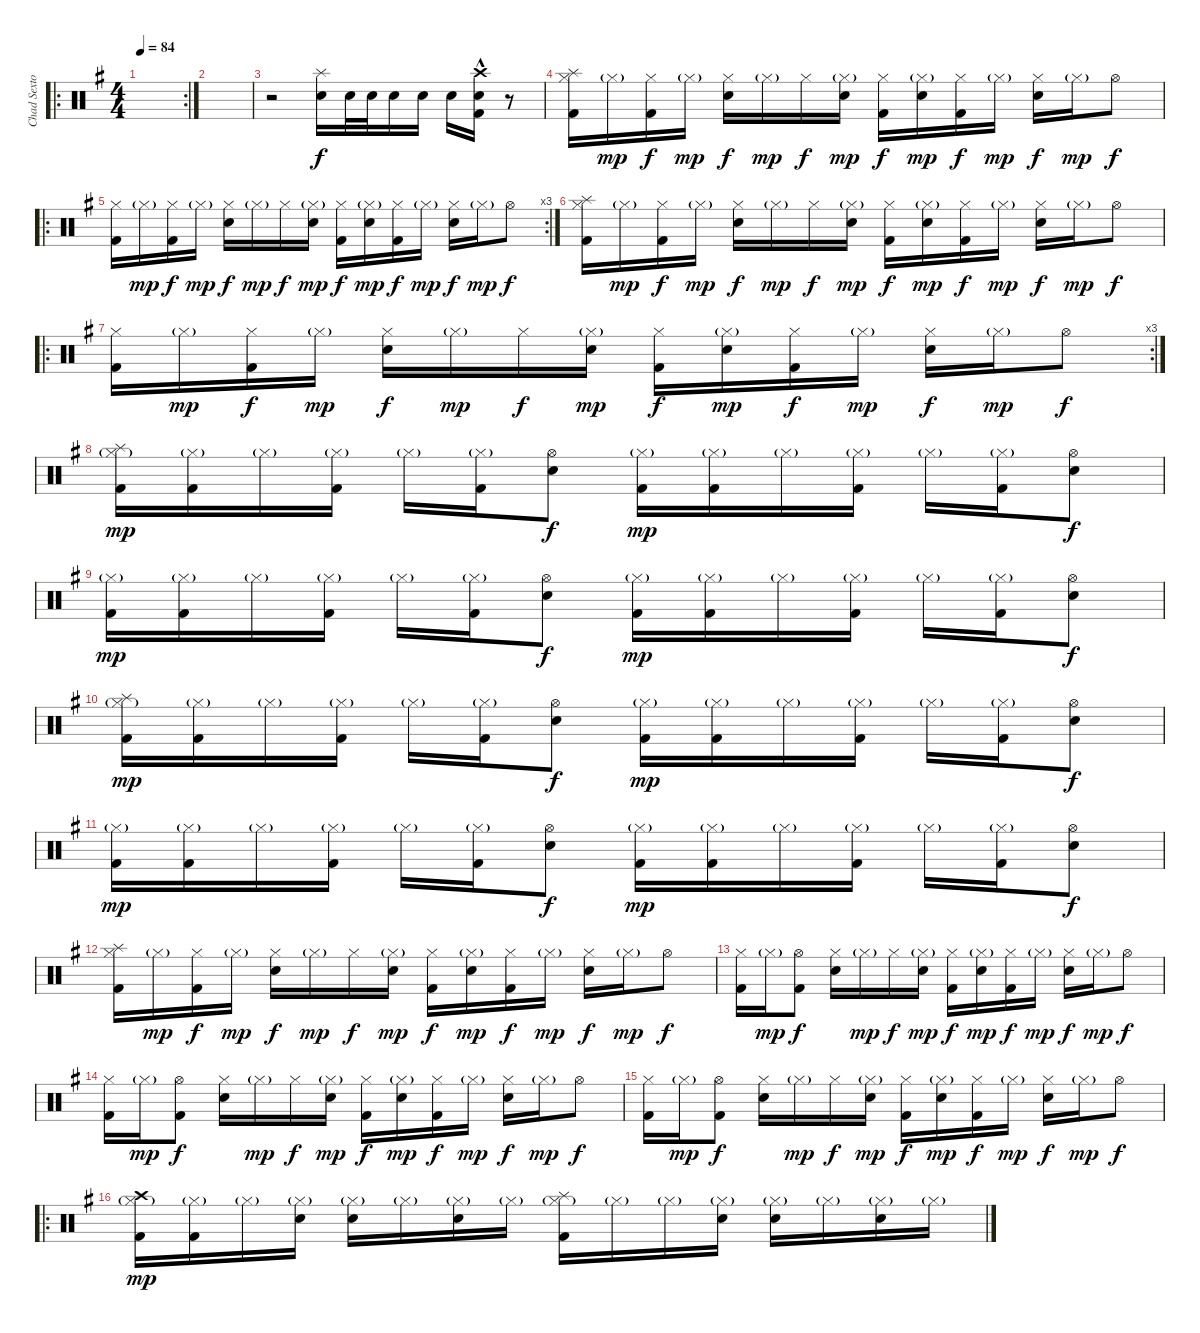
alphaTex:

\track ("Chad Sexton (Drums)" "Chad Sexto") {instrument percussion}
\staff {score}
\articulation defaults
\ro
\rc 2
\ts (4 4)
\tempo 84
\clef neutral
\ks g
|
|
r.2 ("Splash (hit)" "Electric Snare (hit)").16 "Electric Snare (hit)".32 "Electric Snare (hit)".32 "Electric Snare (hit)".16 "Electric Snare (hit)".16 "Electric Snare (hit)".16 ("Crash high (hit)" "Snare (hit) 2"{hac} "Kick (hit) 2").16 r.8 |
("Splash (hit)" "Hi-Hat (closed)" "Kick (hit) 2").16 "Hi-Hat (closed)"{g}.16{dy mp} ("Hi-Hat (closed)" "Kick (hit) 2").16{dy f} "Hi-Hat (closed)"{g}.16{dy mp} ("Hi-Hat (closed)" "Snare (hit) 2").16{dy f} "Hi-Hat (closed)"{g}.16{dy mp} "Hi-Hat (closed)".16{dy f} ("Hi-Hat (closed)"{g} "Snare (hit) 2").16{dy mp} ("Hi-Hat (closed)" "Kick (hit) 2").16{dy f} ("Hi-Hat (closed)"{g} "Snare (hit) 2").16{dy mp} ("Hi-Hat (closed)" "Kick (hit) 2").16{dy f} "Hi-Hat (closed)"{g}.16{dy mp} ("Hi-Hat (closed)" "Snare (hit) 2").16{dy f} "Hi-Hat (closed)"{g}.16{dy mp} "Hi-Hat (open)".8{dy f} |
\ro
\rc 3
("Hi-Hat (closed)" "Kick (hit) 2").16 "Hi-Hat (closed)"{g}.16{dy mp} ("Hi-Hat (closed)" "Kick (hit) 2").16{dy f} "Hi-Hat (closed)"{g}.16{dy mp} ("Hi-Hat (closed)" "Snare (hit) 2").16{dy f} "Hi-Hat (closed)"{g}.16{dy mp} "Hi-Hat (closed)".16{dy f} ("Hi-Hat (closed)"{g} "Snare (hit) 2").16{dy mp} ("Hi-Hat (closed)" "Kick (hit) 2").16{dy f} ("Hi-Hat (closed)"{g} "Snare (hit) 2").16{dy mp} ("Hi-Hat (closed)" "Kick (hit) 2").16{dy f} "Hi-Hat (closed)"{g}.16{dy mp} ("Hi-Hat (closed)" "Snare (hit) 2").16{dy f} "Hi-Hat (closed)"{g}.16{dy mp} "Hi-Hat (open)".8{dy f} |
("Splash (hit)" "Hi-Hat (closed)" "Kick (hit) 2").16 "Hi-Hat (closed)"{g}.16{dy mp} ("Hi-Hat (closed)" "Kick (hit) 2").16{dy f} "Hi-Hat (closed)"{g}.16{dy mp} ("Hi-Hat (closed)" "Snare (hit) 2").16{dy f} "Hi-Hat (closed)"{g}.16{dy mp} "Hi-Hat (closed)".16{dy f} ("Hi-Hat (closed)"{g} "Snare (hit) 2").16{dy mp} ("Hi-Hat (closed)" "Kick (hit) 2").16{dy f} ("Hi-Hat (closed)"{g} "Snare (hit) 2").16{dy mp} ("Hi-Hat (closed)" "Kick (hit) 2").16{dy f} "Hi-Hat (closed)"{g}.16{dy mp} ("Hi-Hat (closed)" "Snare (hit) 2").16{dy f} "Hi-Hat (closed)"{g}.16{dy mp} "Hi-Hat (open)".8{dy f} |
\ro
\rc 3
("Hi-Hat (closed)" "Kick (hit) 2").16 "Hi-Hat (closed)"{g}.16{dy mp} ("Hi-Hat (closed)" "Kick (hit) 2").16{dy f} "Hi-Hat (closed)"{g}.16{dy mp} ("Hi-Hat (closed)" "Snare (hit) 2").16{dy f} "Hi-Hat (closed)"{g}.16{dy mp} "Hi-Hat (closed)".16{dy f} ("Hi-Hat (closed)"{g} "Snare (hit) 2").16{dy mp} ("Hi-Hat (closed)" "Kick (hit) 2").16{dy f} ("Hi-Hat (closed)"{g} "Snare (hit) 2").16{dy mp} ("Hi-Hat (closed)" "Kick (hit) 2").16{dy f} "Hi-Hat (closed)"{g}.16{dy mp} ("Hi-Hat (closed)" "Snare (hit) 2").16{dy f} "Hi-Hat (closed)"{g}.16{dy mp} "Hi-Hat (open)".8{dy f} |
("Splash (hit)" "Hi-Hat (closed)"{g} "Kick (hit) 2").16{dy mp} ("Hi-Hat (closed)"{g} "Kick (hit) 2").16 "Hi-Hat (closed)"{g}.16 ("Hi-Hat (closed)"{g} "Kick (hit) 2").16 "Hi-Hat (closed)"{g}.16 ("Hi-Hat (closed)"{g} "Kick (hit) 2").16 ("Hi-Hat (open)" "Snare (hit) 2").8{dy f} ("Hi-Hat (closed)"{g} "Kick (hit) 2").16{dy mp} ("Hi-Hat (closed)"{g} "Kick (hit) 2").16 "Hi-Hat (closed)"{g}.16 ("Hi-Hat (closed)"{g} "Kick (hit) 2").16 "Hi-Hat (closed)"{g}.16 ("Hi-Hat (closed)"{g} "Kick (hit) 2").16 ("Hi-Hat (open)" "Snare (hit) 2").8{dy f} |
("Hi-Hat (closed)"{g} "Kick (hit) 2").16{dy mp} ("Hi-Hat (closed)"{g} "Kick (hit) 2").16 "Hi-Hat (closed)"{g}.16 ("Hi-Hat (closed)"{g} "Kick (hit) 2").16 "Hi-Hat (closed)"{g}.16 ("Hi-Hat (closed)"{g} "Kick (hit) 2").16 ("Hi-Hat (open)" "Snare (hit) 2").8{dy f} ("Hi-Hat (closed)"{g} "Kick (hit) 2").16{dy mp} ("Hi-Hat (closed)"{g} "Kick (hit) 2").16 "Hi-Hat (closed)"{g}.16 ("Hi-Hat (closed)"{g} "Kick (hit) 2").16 "Hi-Hat (closed)"{g}.16 ("Hi-Hat (closed)"{g} "Kick (hit) 2").16 ("Hi-Hat (open)" "Snare (hit) 2").8{dy f} |
("Splash (hit)" "Hi-Hat (closed)"{g} "Kick (hit) 2").16{dy mp} ("Hi-Hat (closed)"{g} "Kick (hit) 2").16 "Hi-Hat (closed)"{g}.16 ("Hi-Hat (closed)"{g} "Kick (hit) 2").16 "Hi-Hat (closed)"{g}.16 ("Hi-Hat (closed)"{g} "Kick (hit) 2").16 ("Hi-Hat (open)" "Snare (hit) 2").8{dy f} ("Hi-Hat (closed)"{g} "Kick (hit) 2").16{dy mp} ("Hi-Hat (closed)"{g} "Kick (hit) 2").16 "Hi-Hat (closed)"{g}.16 ("Hi-Hat (closed)"{g} "Kick (hit) 2").16 "Hi-Hat (closed)"{g}.16 ("Hi-Hat (closed)"{g} "Kick (hit) 2").16 ("Hi-Hat (open)" "Snare (hit) 2").8{dy f} |
("Hi-Hat (closed)"{g} "Kick (hit) 2").16{dy mp} ("Hi-Hat (closed)"{g} "Kick (hit) 2").16 "Hi-Hat (closed)"{g}.16 ("Hi-Hat (closed)"{g} "Kick (hit) 2").16 "Hi-Hat (closed)"{g}.16 ("Hi-Hat (closed)"{g} "Kick (hit) 2").16 ("Hi-Hat (open)" "Snare (hit) 2").8{dy f} ("Hi-Hat (closed)"{g} "Kick (hit) 2").16{dy mp} ("Hi-Hat (closed)"{g} "Kick (hit) 2").16 "Hi-Hat (closed)"{g}.16 ("Hi-Hat (closed)"{g} "Kick (hit) 2").16 "Hi-Hat (closed)"{g}.16 ("Hi-Hat (closed)"{g} "Kick (hit) 2").16 ("Hi-Hat (open)" "Snare (hit) 2").8{dy f} |
("Splash (hit)" "Hi-Hat (closed)" "Kick (hit) 2").16 "Hi-Hat (closed)"{g}.16{dy mp} ("Hi-Hat (closed)" "Kick (hit) 2").16{dy f} "Hi-Hat (closed)"{g}.16{dy mp} ("Hi-Hat (closed)" "Snare (hit) 2").16{dy f} "Hi-Hat (closed)"{g}.16{dy mp} "Hi-Hat (closed)".16{dy f} ("Hi-Hat (closed)"{g} "Snare (hit) 2").16{dy mp} ("Hi-Hat (closed)" "Kick (hit) 2").16{dy f} ("Hi-Hat (closed)"{g} "Snare (hit) 2").16{dy mp} ("Hi-Hat (closed)" "Kick (hit) 2").16{dy f} "Hi-Hat (closed)"{g}.16{dy mp} ("Hi-Hat (closed)" "Snare (hit) 2").16{dy f} "Hi-Hat (closed)"{g}.16{dy mp} "Hi-Hat (open)".8{dy f} |
("Hi-Hat (closed)" "Kick (hit) 2").16 "Hi-Hat (closed)"{g}.16{dy mp} ("Hi-Hat (open)" "Kick (hit) 2").8{dy f} ("Hi-Hat (closed)" "Snare (hit) 2").16 "Hi-Hat (closed)"{g}.16{dy mp} "Hi-Hat (closed)".16{dy f} ("Hi-Hat (closed)"{g} "Snare (hit) 2").16{dy mp} ("Hi-Hat (closed)" "Kick (hit) 2").16{dy f} ("Hi-Hat (closed)"{g} "Snare (hit) 2").16{dy mp} ("Hi-Hat (closed)" "Kick (hit) 2").16{dy f} "Hi-Hat (closed)"{g}.16{dy mp} ("Hi-Hat (closed)" "Snare (hit) 2").16{dy f} "Hi-Hat (closed)"{g}.16{dy mp} "Hi-Hat (open)".8{dy f} |
("Hi-Hat (closed)" "Kick (hit) 2").16 "Hi-Hat (closed)"{g}.16{dy mp} ("Hi-Hat (open)" "Kick (hit) 2").8{dy f} ("Hi-Hat (closed)" "Snare (hit) 2").16 "Hi-Hat (closed)"{g}.16{dy mp} "Hi-Hat (closed)".16{dy f} ("Hi-Hat (closed)"{g} "Snare (hit) 2").16{dy mp} ("Hi-Hat (closed)" "Kick (hit) 2").16{dy f} ("Hi-Hat (closed)"{g} "Snare (hit) 2").16{dy mp} ("Hi-Hat (closed)" "Kick (hit) 2").16{dy f} "Hi-Hat (closed)"{g}.16{dy mp} ("Hi-Hat (closed)" "Snare (hit) 2").16{dy f} "Hi-Hat (closed)"{g}.16{dy mp} "Hi-Hat (open)".8{dy f} |
("Hi-Hat (closed)" "Kick (hit) 2").16 "Hi-Hat (closed)"{g}.16{dy mp} ("Hi-Hat (open)" "Kick (hit) 2").8{dy f} ("Hi-Hat (closed)" "Snare (hit) 2").16 "Hi-Hat (closed)"{g}.16{dy mp} "Hi-Hat (closed)".16{dy f} ("Hi-Hat (closed)"{g} "Snare (hit) 2").16{dy mp} ("Hi-Hat (closed)" "Kick (hit) 2").16{dy f} ("Hi-Hat (closed)"{g} "Snare (hit) 2").16{dy mp} ("Hi-Hat (closed)" "Kick (hit) 2").16{dy f} "Hi-Hat (closed)"{g}.16{dy mp} ("Hi-Hat (closed)" "Snare (hit) 2").16{dy f} "Hi-Hat (closed)"{g}.16{dy mp} "Hi-Hat (open)".8{dy f} |
\ro
("Crash high (hit)" "Hi-Hat (closed)"{g} "Kick (hit) 2").16{dy mp} ("Hi-Hat (closed)"{g} "Kick (hit) 2").16 "Hi-Hat (closed)"{g}.16 ("Hi-Hat (closed)"{g} "Electric Snare (hit)").16 ("Hi-Hat (closed)"{g} "Snare (hit) 2").16 "Hi-Hat (closed)"{g}.16 ("Hi-Hat (closed)"{g} "Electric Snare (hit)").16 "Hi-Hat (closed)"{g}.16 ("Splash (hit)" "Hi-Hat (closed)"{g} "Kick (hit) 2").16 "Hi-Hat (closed)"{g}.16 "Hi-Hat (closed)"{g}.16 ("Hi-Hat (closed)"{g} "Electric Snare (hit)").16 ("Hi-Hat (closed)"{g} "Snare (hit) 2").16 "Hi-Hat (closed)"{g}.16 ("Hi-Hat (closed)"{g} "Electric Snare (hit)").16 "Hi-Hat (closed)"{g}.16
